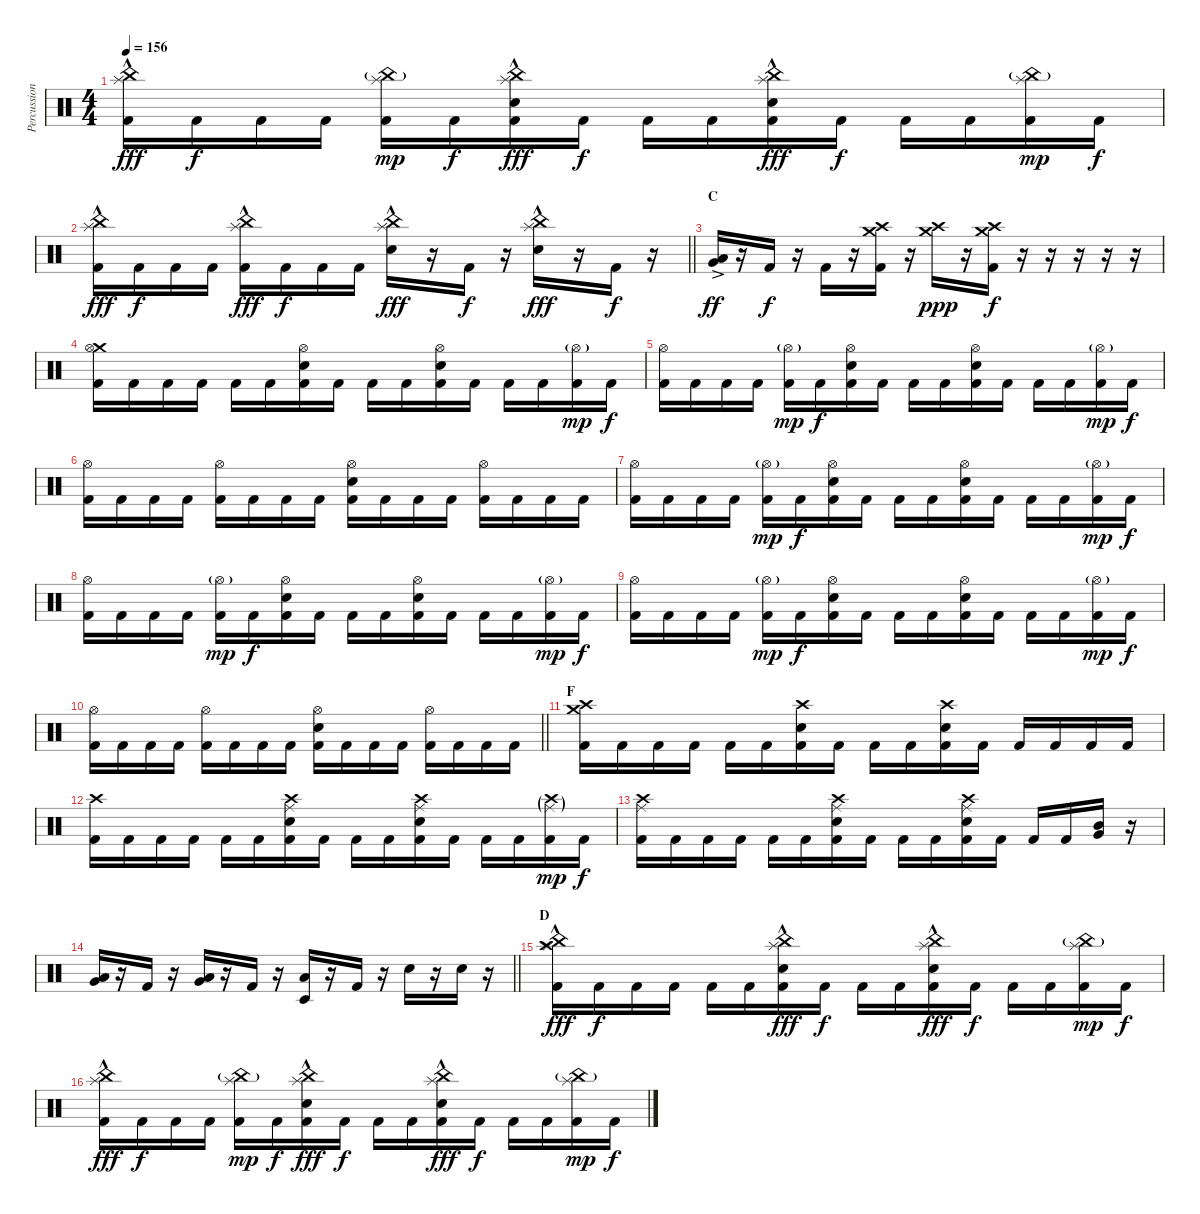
\track ("Percussion" "Percussion") {instrument percussion}
\staff {score}
\articulation defaults
\ts (4 4)
\tempo 156
\clef neutral
\ks c
("China (hit)" "Splash (hit)"{hac} "Kick (hit) 2").16{dy fff} "Kick (hit) 2".16{dy f} "Kick (hit) 2".16 "Kick (hit) 2".16 ("China (hit)"{g} "Splash (hit)" "Kick (hit) 2").16{dy mp} "Kick (hit) 2".16{dy f} ("China (hit)" "Splash (hit)"{hac} "Electric Snare (hit)" "Kick (hit) 2").16{dy fff} "Kick (hit) 2".16{dy f} "Kick (hit) 2".16 "Kick (hit) 2".16 ("China (hit)" "Splash (hit)"{hac} "Electric Snare (hit)" "Kick (hit) 2").16{dy fff} "Kick (hit) 2".16{dy f} "Kick (hit) 2".16 "Kick (hit) 2".16 ("China (hit)"{g} "Splash (hit)" "Kick (hit) 2").16{dy mp} "Kick (hit) 2".16{dy f} |
\barLineRight lightlight
("China (hit)" "Splash (hit)"{hac} "Kick (hit) 2").16{dy fff} "Kick (hit) 2".16{dy f} "Kick (hit) 2".16 "Kick (hit) 2".16 ("China (hit)" "Splash (hit)"{hac} "Kick (hit) 2").16{dy fff} "Kick (hit) 2".16{dy f} "Kick (hit) 2".16 "Kick (hit) 2".16 ("China (hit)" "Splash (hit)"{hac} "Electric Snare (hit)").16{dy fff} r.16 "Kick (hit) 2".16{dy f} r.16 ("China (hit)" "Splash (hit)"{hac} "Electric Snare (hit)").16{dy fff} r.16 "Kick (hit) 2".16{dy f} r.16 |
\section ("" "C")
("Very Low Tom (hit)"{ac} "Low Floor Tom (hit)"{ac}).16{dy ff} r.16 "Kick (hit) 2".16{dy f} r.16 "Kick (hit) 2".16 r.16 ("Crash medium (hit)" "Crash high (hit)" "Kick (hit) 2").16 r.16 ("Crash medium (hit)" "Crash high (hit)").16{dy ppp} r.16 ("Crash medium (hit)" "Crash high (hit)" "Kick (hit) 2").16{dy f} r.16 r.16 r.16 r.16 r.16 |
("Crash medium (hit)" "Hi-Hat (open)" "Kick (hit) 2").16 "Kick (hit) 2".16 "Kick (hit) 2".16 "Kick (hit) 2".16 "Kick (hit) 2".16 "Kick (hit) 2".16 ("Hi-Hat (open)" "Electric Snare (hit)" "Kick (hit) 2").16 "Kick (hit) 2".16 "Kick (hit) 2".16 "Kick (hit) 2".16 ("Hi-Hat (open)" "Electric Snare (hit)" "Kick (hit) 2").16 "Kick (hit) 2".16 "Kick (hit) 2".16 "Kick (hit) 2".16 ("Hi-Hat (open)"{g} "Kick (hit) 2").16{dy mp} "Kick (hit) 2".16{dy f} |
("Hi-Hat (open)" "Kick (hit) 2").16 "Kick (hit) 2".16 "Kick (hit) 2".16 "Kick (hit) 2".16 ("Hi-Hat (open)"{g} "Kick (hit) 2").16{dy mp} "Kick (hit) 2".16{dy f} ("Hi-Hat (open)" "Electric Snare (hit)" "Kick (hit) 2").16 "Kick (hit) 2".16 "Kick (hit) 2".16 "Kick (hit) 2".16 ("Hi-Hat (open)" "Electric Snare (hit)" "Kick (hit) 2").16 "Kick (hit) 2".16 "Kick (hit) 2".16 "Kick (hit) 2".16 ("Hi-Hat (open)"{g} "Kick (hit) 2").16{dy mp} "Kick (hit) 2".16{dy f} |
("Hi-Hat (open)" "Kick (hit) 2").16 "Kick (hit) 2".16 "Kick (hit) 2".16 "Kick (hit) 2".16 ("Hi-Hat (open)" "Kick (hit) 2").16 "Kick (hit) 2".16 "Kick (hit) 2".16 "Kick (hit) 2".16 ("Hi-Hat (open)" "Electric Snare (hit)" "Kick (hit) 2").16 "Kick (hit) 2".16 "Kick (hit) 2".16 "Kick (hit) 2".16 ("Hi-Hat (open)" "Kick (hit) 2").16 "Kick (hit) 2".16 "Kick (hit) 2".16 "Kick (hit) 2".16 |
("Hi-Hat (open)" "Kick (hit) 2").16 "Kick (hit) 2".16 "Kick (hit) 2".16 "Kick (hit) 2".16 ("Hi-Hat (open)"{g} "Kick (hit) 2").16{dy mp} "Kick (hit) 2".16{dy f} ("Hi-Hat (open)" "Electric Snare (hit)" "Kick (hit) 2").16 "Kick (hit) 2".16 "Kick (hit) 2".16 "Kick (hit) 2".16 ("Hi-Hat (open)" "Electric Snare (hit)" "Kick (hit) 2").16 "Kick (hit) 2".16 "Kick (hit) 2".16 "Kick (hit) 2".16 ("Hi-Hat (open)"{g} "Kick (hit) 2").16{dy mp} "Kick (hit) 2".16{dy f} |
("Hi-Hat (open)" "Kick (hit) 2").16 "Kick (hit) 2".16 "Kick (hit) 2".16 "Kick (hit) 2".16 ("Hi-Hat (open)"{g} "Kick (hit) 2").16{dy mp} "Kick (hit) 2".16{dy f} ("Hi-Hat (open)" "Electric Snare (hit)" "Kick (hit) 2").16 "Kick (hit) 2".16 "Kick (hit) 2".16 "Kick (hit) 2".16 ("Hi-Hat (open)" "Electric Snare (hit)" "Kick (hit) 2").16 "Kick (hit) 2".16 "Kick (hit) 2".16 "Kick (hit) 2".16 ("Hi-Hat (open)"{g} "Kick (hit) 2").16{dy mp} "Kick (hit) 2".16{dy f} |
("Hi-Hat (open)" "Kick (hit) 2").16 "Kick (hit) 2".16 "Kick (hit) 2".16 "Kick (hit) 2".16 ("Hi-Hat (open)"{g} "Kick (hit) 2").16{dy mp} "Kick (hit) 2".16{dy f} ("Hi-Hat (open)" "Electric Snare (hit)" "Kick (hit) 2").16 "Kick (hit) 2".16 "Kick (hit) 2".16 "Kick (hit) 2".16 ("Hi-Hat (open)" "Electric Snare (hit)" "Kick (hit) 2").16 "Kick (hit) 2".16 "Kick (hit) 2".16 "Kick (hit) 2".16 ("Hi-Hat (open)"{g} "Kick (hit) 2").16{dy mp} "Kick (hit) 2".16{dy f} |
\barLineRight lightlight
("Hi-Hat (open)" "Kick (hit) 2").16 "Kick (hit) 2".16 "Kick (hit) 2".16 "Kick (hit) 2".16 ("Hi-Hat (open)" "Kick (hit) 2").16 "Kick (hit) 2".16 "Kick (hit) 2".16 "Kick (hit) 2".16 ("Hi-Hat (open)" "Electric Snare (hit)" "Kick (hit) 2").16 "Kick (hit) 2".16 "Kick (hit) 2".16 "Kick (hit) 2".16 ("Hi-Hat (open)" "Kick (hit) 2").16 "Kick (hit) 2".16 "Kick (hit) 2".16 "Kick (hit) 2".16 |
\section ("" "F")
("Crash medium (hit)" "Crash high (hit)" "Kick (hit) 2").16 "Kick (hit) 2".16 "Kick (hit) 2".16 "Kick (hit) 2".16 "Kick (hit) 2".16 "Kick (hit) 2".16 ("Crash high (hit)" "Electric Snare (hit)" "Kick (hit) 2").16 "Kick (hit) 2".16 "Kick (hit) 2".16 "Kick (hit) 2".16 ("Crash high (hit)" "Electric Snare (hit)" "Kick (hit) 2").16 "Kick (hit) 2".16 "Kick (hit) 2".16 "Kick (hit) 2".16 "Kick (hit) 2".16 "Kick (hit) 2".16 |
("Crash high (hit)" "Kick (hit) 2").16 "Kick (hit) 2".16 "Kick (hit) 2".16 "Kick (hit) 2".16 "Kick (hit) 2".16 "Kick (hit) 2".16 ("Ride (middle)" "Crash high (hit)" "Electric Snare (hit)" "Kick (hit) 2").16 "Kick (hit) 2".16 "Kick (hit) 2".16 "Kick (hit) 2".16 ("Ride (middle)" "Crash high (hit)" "Electric Snare (hit)" "Kick (hit) 2").16 "Kick (hit) 2".16 "Kick (hit) 2".16 "Kick (hit) 2".16 ("Ride (middle)"{g} "Crash high (hit)"{g} "Kick (hit) 2").16{dy mp} "Kick (hit) 2".16{dy f} |
("Ride (middle)" "Crash high (hit)" "Kick (hit) 2").16 "Kick (hit) 2".16 "Kick (hit) 2".16 "Kick (hit) 2".16 "Kick (hit) 2".16 "Kick (hit) 2".16 ("Ride (middle)" "Crash high (hit)" "Electric Snare (hit)" "Kick (hit) 2").16 "Kick (hit) 2".16 "Kick (hit) 2".16 "Kick (hit) 2".16 ("Ride (middle)" "Crash high (hit)" "Electric Snare (hit)" "Kick (hit) 2").16 "Kick (hit) 2".16 "Kick (hit) 2".16 "Kick (hit) 2".16 ("Mid Tom (hit)" "Very Low Tom (hit)").16 r.16 |
\barLineRight lightlight
("Low Tom (hit)" "Very Low Tom (hit)").16 r.16 "Kick (hit) 2".16 r.16 ("Very Low Tom (hit)" "Low Floor Tom (hit)").16 r.16 "Kick (hit) 2".16 r.16 ("Timbale low (hit)" "Low Floor Tom (hit)").16 r.16 "Kick (hit) 2".16 r.16 "Electric Snare (hit)".16 r.16 "Electric Snare (hit)".16 r.16 |
\section ("" "D")
("China (hit)" "Splash (hit)"{hac} "Crash high (hit)" "Kick (hit) 2").16{dy fff} "Kick (hit) 2".16{dy f} "Kick (hit) 2".16 "Kick (hit) 2".16 "Kick (hit) 2".16 "Kick (hit) 2".16 ("China (hit)" "Splash (hit)"{hac} "Electric Snare (hit)" "Kick (hit) 2").16{dy fff} "Kick (hit) 2".16{dy f} "Kick (hit) 2".16 "Kick (hit) 2".16 ("China (hit)" "Splash (hit)"{hac} "Electric Snare (hit)" "Kick (hit) 2").16{dy fff} "Kick (hit) 2".16{dy f} "Kick (hit) 2".16 "Kick (hit) 2".16 ("China (hit)"{g} "Splash (hit)" "Kick (hit) 2").16{dy mp} "Kick (hit) 2".16{dy f} |
("China (hit)" "Splash (hit)"{hac} "Kick (hit) 2").16{dy fff} "Kick (hit) 2".16{dy f} "Kick (hit) 2".16 "Kick (hit) 2".16 ("China (hit)"{g} "Splash (hit)" "Kick (hit) 2").16{dy mp} "Kick (hit) 2".16{dy f} ("China (hit)" "Splash (hit)"{hac} "Electric Snare (hit)" "Kick (hit) 2").16{dy fff} "Kick (hit) 2".16{dy f} "Kick (hit) 2".16 "Kick (hit) 2".16 ("China (hit)" "Splash (hit)"{hac} "Electric Snare (hit)" "Kick (hit) 2").16{dy fff} "Kick (hit) 2".16{dy f} "Kick (hit) 2".16 "Kick (hit) 2".16 ("China (hit)"{g} "Splash (hit)" "Kick (hit) 2").16{dy mp} "Kick (hit) 2".16{dy f}
